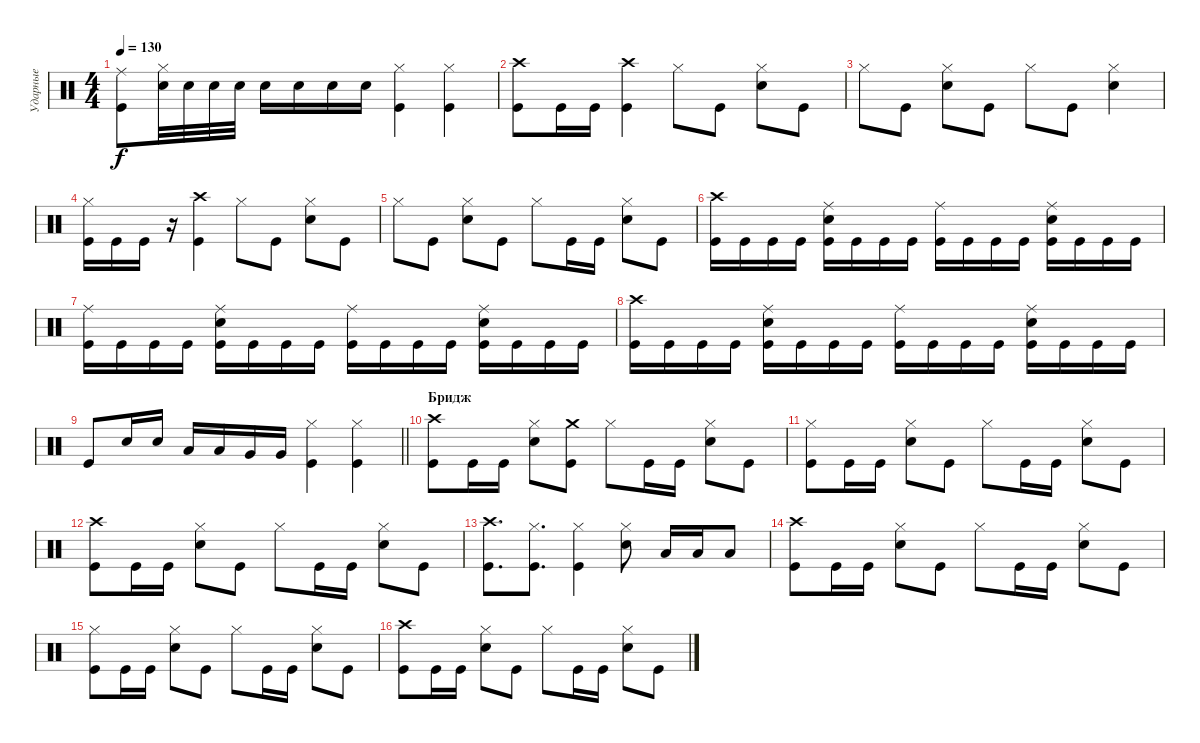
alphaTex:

\track ("Ударные" "Ударные") {instrument percussion}
\staff {score}
\articulation defaults
\ts (4 4)
\tempo 130
\clef neutral
\ks c
("Ride (middle)" "Kick (hit)").8{dy f} ("Hi-Hat (closed)" "Snare (hit) 2").32 "Snare (hit) 2".32 "Snare (hit) 2".32 "Snare (hit) 2".32 "Snare (hit) 2".16 "Snare (hit) 2".16 "Snare (hit) 2".16 "Snare (hit) 2".16 ("Hi-Hat (closed)" "Kick (hit)").4 ("Hi-Hat (closed)" "Kick (hit)").4 |
("Crash high (hit)" "Kick (hit)").8 "Kick (hit)".16 "Kick (hit)".16 ("Crash high (hit)" "Kick (hit)").4 "Hi-Hat (closed)".8 "Kick (hit)".8 ("Hi-Hat (closed)" "Snare (hit) 2").8 "Kick (hit)".8 |
"Hi-Hat (closed)".8 "Kick (hit)".8 ("Hi-Hat (closed)" "Snare (hit) 2").8 "Kick (hit)".8 "Hi-Hat (closed)".8 "Kick (hit)".8 ("Hi-Hat (closed)" "Snare (hit) 2").4 |
("Hi-Hat (closed)" "Kick (hit)").16 "Kick (hit)".16 "Kick (hit)".16 r.16 ("Crash high (hit)" "Kick (hit)").4 "Hi-Hat (closed)".8 "Kick (hit)".8 ("Hi-Hat (closed)" "Snare (hit) 2").8 "Kick (hit)".8 |
"Hi-Hat (closed)".8 "Kick (hit)".8 ("Hi-Hat (closed)" "Snare (hit) 2").8 "Kick (hit)".8 "Hi-Hat (closed)".8 "Kick (hit)".16 "Kick (hit)".16 ("Hi-Hat (closed)" "Snare (hit) 2").8 "Kick (hit)".8 |
("Crash high (hit)" "Kick (hit)").16 "Kick (hit)".16 "Kick (hit)".16 "Kick (hit)".16 ("Ride (middle)" "Snare (hit) 2" "Kick (hit)").16 "Kick (hit)".16 "Kick (hit)".16 "Kick (hit)".16 ("Ride (middle)" "Kick (hit)").16 "Kick (hit)".16 "Kick (hit)".16 "Kick (hit)".16 ("Ride (middle)" "Snare (hit) 2" "Kick (hit)").16 "Kick (hit)".16 "Kick (hit)".16 "Kick (hit)".16 |
("Ride (middle)" "Kick (hit)").16 "Kick (hit)".16 "Kick (hit)".16 "Kick (hit)".16 ("Ride (middle)" "Snare (hit) 2" "Kick (hit)").16 "Kick (hit)".16 "Kick (hit)".16 "Kick (hit)".16 ("Ride (middle)" "Kick (hit)").16 "Kick (hit)".16 "Kick (hit)".16 "Kick (hit)".16 ("Ride (middle)" "Snare (hit) 2" "Kick (hit)").16 "Kick (hit)".16 "Kick (hit)".16 "Kick (hit)".16 |
("Crash high (hit)" "Kick (hit)").16 "Kick (hit)".16 "Kick (hit)".16 "Kick (hit)".16 ("Ride (middle)" "Snare (hit) 2" "Kick (hit)").16 "Kick (hit)".16 "Kick (hit)".16 "Kick (hit)".16 ("Ride (middle)" "Kick (hit)").16 "Kick (hit)".16 "Kick (hit)".16 "Kick (hit)".16 ("Ride (middle)" "Snare (hit) 2" "Kick (hit)").16 "Kick (hit)".16 "Kick (hit)".16 "Kick (hit)".16 |
\barLineRight lightlight "Kick (hit)".8 "Snare (hit) 2".16 "Snare (hit) 2".16 "Low Tom (hit)".16 "Low Tom (hit)".16 "Very Low Tom (hit)".16 "Very Low Tom (hit)".16
("Hi-Hat (closed)" "Kick (hit)").4 ("Hi-Hat (closed)" "Kick (hit)").4 |
\section ("" "Бридж")
("Crash high (hit)" "Kick (hit)").8 "Kick (hit)".16 "Kick (hit)".16 ("Hi-Hat (closed)" "Snare (hit) 2").8 ("Crash medium (hit)" "Kick (hit)").8 "Hi-Hat (closed)".8 "Kick (hit)".16 "Kick (hit)".16 ("Hi-Hat (closed)" "Snare (hit) 2").8 "Kick (hit)".8 |
("Hi-Hat (closed)" "Kick (hit)").8 "Kick (hit)".16 "Kick (hit)".16 ("Hi-Hat (closed)" "Snare (hit) 2").8 "Kick (hit)".8 "Hi-Hat (closed)".8 "Kick (hit)".16 "Kick (hit)".16 ("Hi-Hat (closed)" "Snare (hit) 2").8 "Kick (hit)".8 |
("Crash high (hit)" "Kick (hit)").8 "Kick (hit)".16 "Kick (hit)".16 ("Hi-Hat (closed)" "Snare (hit) 2").8 "Kick (hit)".8 "Hi-Hat (closed)".8 "Kick (hit)".16 "Kick (hit)".16 ("Hi-Hat (closed)" "Snare (hit) 2").8 "Kick (hit)".8 |
("Crash high (hit)" "Kick (hit)").8{d} ("Hi-Hat (closed)" "Kick (hit)").8{d} ("Hi-Hat (closed)" "Kick (hit)").4 ("Hi-Hat (closed)" "Snare (hit) 2").8 "Low Tom (hit)".16 "Low Tom (hit)".16 "Low Tom (hit)".8 |
("Crash high (hit)" "Kick (hit)").8 "Kick (hit)".16 "Kick (hit)".16 ("Hi-Hat (closed)" "Snare (hit) 2").8 "Kick (hit)".8 "Hi-Hat (closed)".8 "Kick (hit)".16 "Kick (hit)".16 ("Hi-Hat (closed)" "Snare (hit) 2").8 "Kick (hit)".8 |
("Hi-Hat (closed)" "Kick (hit)").8 "Kick (hit)".16 "Kick (hit)".16 ("Hi-Hat (closed)" "Snare (hit) 2").8 "Kick (hit)".8 "Hi-Hat (closed)".8 "Kick (hit)".16 "Kick (hit)".16 ("Hi-Hat (closed)" "Snare (hit) 2").8 "Kick (hit)".8 |
("Crash high (hit)" "Kick (hit)").8 "Kick (hit)".16 "Kick (hit)".16 ("Hi-Hat (closed)" "Snare (hit) 2").8 "Kick (hit)".8 "Hi-Hat (closed)".8 "Kick (hit)".16 "Kick (hit)".16 ("Hi-Hat (closed)" "Snare (hit) 2").8 "Kick (hit)".8
